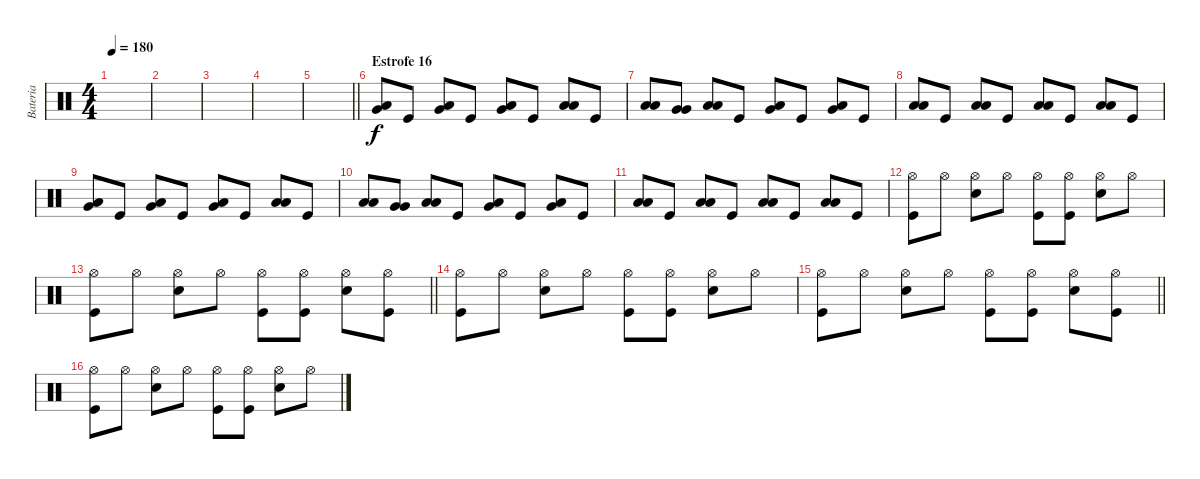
\track ("Bateria" "Bateria") {instrument percussion}
\staff {score}
\articulation defaults
\ts (4 4)
\tempo 180
\clef neutral
\ks c
|
|
|
|
\barLineRight lightlight
|
\section ("" "Estrofe 16")
("Low Tom (hit)" "Very Low Tom (hit)").8 "Kick (hit)".8 ("Very Low Tom (hit)" "Low Floor Tom (hit)").8 "Kick (hit)".8 ("Low Tom (hit)" "Very Low Tom (hit)").8 "Kick (hit)".8 ("Low Floor Tom (hit)" "Low Floor Tom (hit)").8 "Kick (hit)".8 |
("Low Tom (hit)" "Low Tom (hit)").8 ("Very Low Tom (hit)" "Very Low Tom (hit)").8 ("Low Floor Tom (hit)" "Low Floor Tom (hit)").8 "Kick (hit)".8 ("Low Floor Tom (hit)" "Very Low Tom (hit)").8 "Kick (hit)".8 ("Low Tom (hit)" "Very Low Tom (hit)").8 "Kick (hit)".8 |
("Low Floor Tom (hit)" "Low Floor Tom (hit)").8 "Kick (hit)".8 ("Low Floor Tom (hit)" "Low Floor Tom (hit)").8 "Kick (hit)".8 ("Low Floor Tom (hit)" "Low Floor Tom (hit)").8 "Kick (hit)".8 ("Low Floor Tom (hit)" "Low Floor Tom (hit)").8 "Kick (hit)".8 |
("Low Tom (hit)" "Very Low Tom (hit)").8 "Kick (hit)".8 ("Very Low Tom (hit)" "Low Floor Tom (hit)").8 "Kick (hit)".8 ("Low Tom (hit)" "Very Low Tom (hit)").8 "Kick (hit)".8 ("Low Floor Tom (hit)" "Low Floor Tom (hit)").8 "Kick (hit)".8 |
("Low Tom (hit)" "Low Tom (hit)").8 ("Very Low Tom (hit)" "Very Low Tom (hit)").8 ("Low Floor Tom (hit)" "Low Floor Tom (hit)").8 "Kick (hit)".8 ("Low Floor Tom (hit)" "Very Low Tom (hit)").8 "Kick (hit)".8 ("Low Tom (hit)" "Very Low Tom (hit)").8 "Kick (hit)".8 |
("Low Floor Tom (hit)" "Low Floor Tom (hit)").8 "Kick (hit)".8 ("Low Floor Tom (hit)" "Low Floor Tom (hit)").8 "Kick (hit)".8 ("Low Floor Tom (hit)" "Low Floor Tom (hit)").8 "Kick (hit)".8 ("Low Floor Tom (hit)" "Low Floor Tom (hit)").8 "Kick (hit)".8 |
("Hi-Hat (open)" "Kick (hit)").8 "Hi-Hat (open)".8 ("Hi-Hat (open)" "Snare (hit) 2").8 "Hi-Hat (open)".8 ("Hi-Hat (open)" "Kick (hit)").8 ("Hi-Hat (open)" "Kick (hit)").8 ("Hi-Hat (open)" "Snare (hit) 2").8 "Hi-Hat (open)".8 |
\barLineRight lightlight
("Hi-Hat (open)" "Kick (hit)").8 "Hi-Hat (open)".8 ("Hi-Hat (open)" "Snare (hit) 2").8 "Hi-Hat (open)".8 ("Hi-Hat (open)" "Kick (hit)").8 ("Hi-Hat (open)" "Kick (hit)").8 ("Hi-Hat (open)" "Snare (hit) 2").8 ("Hi-Hat (open)" "Kick (hit)").8 |
("Hi-Hat (open)" "Kick (hit)").8 "Hi-Hat (open)".8 ("Hi-Hat (open)" "Snare (hit) 2").8 "Hi-Hat (open)".8 ("Hi-Hat (open)" "Kick (hit)").8 ("Hi-Hat (open)" "Kick (hit)").8 ("Hi-Hat (open)" "Snare (hit) 2").8 "Hi-Hat (open)".8 |
\barLineRight lightlight
("Hi-Hat (open)" "Kick (hit)").8 "Hi-Hat (open)".8 ("Hi-Hat (open)" "Snare (hit) 2").8 "Hi-Hat (open)".8 ("Hi-Hat (open)" "Kick (hit)").8 ("Hi-Hat (open)" "Kick (hit)").8 ("Hi-Hat (open)" "Snare (hit) 2").8 ("Hi-Hat (open)" "Kick (hit)").8 |
("Hi-Hat (open)" "Kick (hit)").8 "Hi-Hat (open)".8 ("Hi-Hat (open)" "Snare (hit) 2").8 "Hi-Hat (open)".8 ("Hi-Hat (open)" "Kick (hit)").8 ("Hi-Hat (open)" "Kick (hit)").8 ("Hi-Hat (open)" "Snare (hit) 2").8 "Hi-Hat (open)".8
